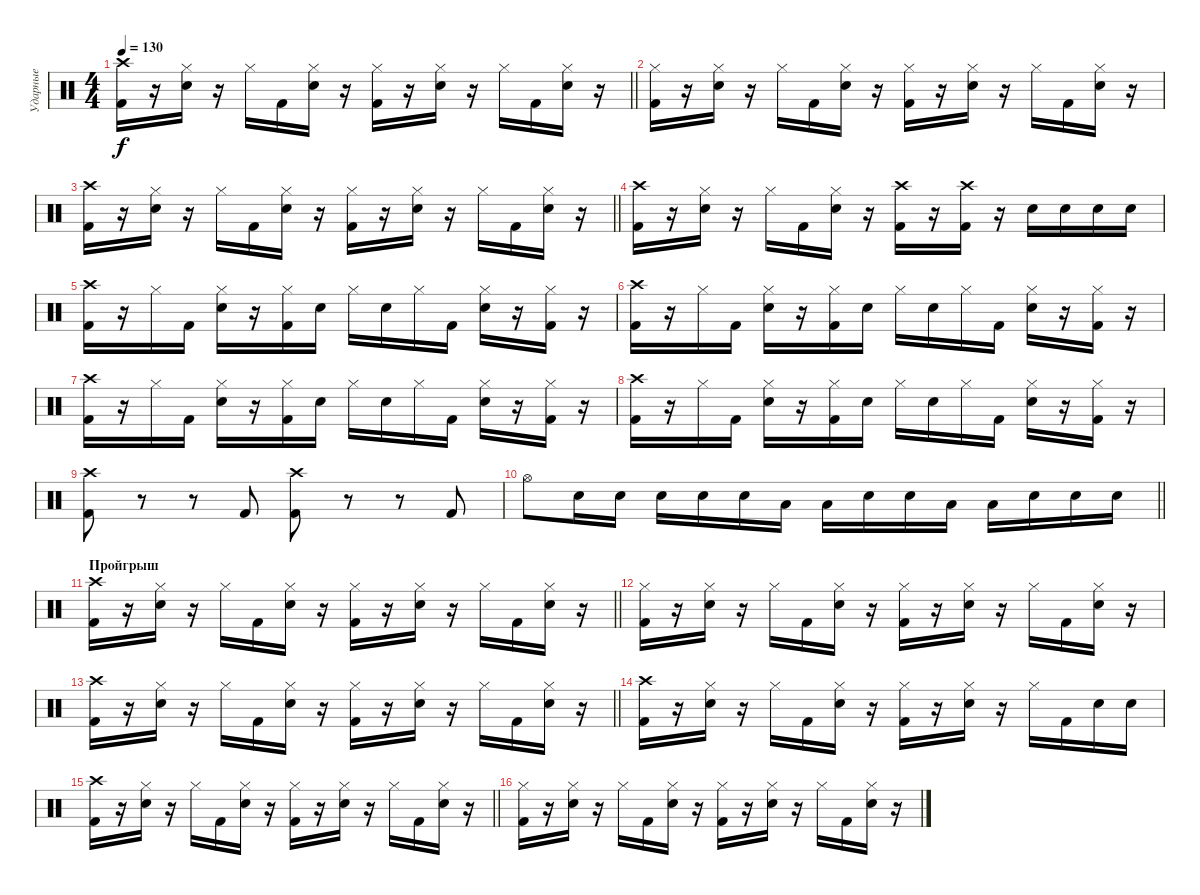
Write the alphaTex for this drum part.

\track ("Ударные" "Ударные") {instrument percussion}
\staff {score}
\articulation defaults
\ts (4 4)
\tempo 130
\clef neutral
\barLineRight lightlight
\ks c
("Kick (hit) 2" "Crash high (hit)").16{dy f} r.16 ("Electric Snare (hit)" "Hi-Hat (closed)").16 r.16 "Hi-Hat (closed)".16 "Kick (hit) 2".16 ("Electric Snare (hit)" "Hi-Hat (closed)").16 r.16 ("Kick (hit) 2" "Hi-Hat (closed)").16 r.16 ("Electric Snare (hit)" "Hi-Hat (closed)").16 r.16 "Hi-Hat (closed)".16 "Kick (hit) 2".16 ("Electric Snare (hit)" "Hi-Hat (closed)").16 r.16 |
("Kick (hit) 2" "Hi-Hat (closed)").16 r.16 ("Electric Snare (hit)" "Hi-Hat (closed)").16 r.16 "Hi-Hat (closed)".16 "Kick (hit) 2".16 ("Electric Snare (hit)" "Hi-Hat (closed)").16 r.16 ("Kick (hit) 2" "Hi-Hat (closed)").16 r.16 ("Electric Snare (hit)" "Hi-Hat (closed)").16 r.16 "Hi-Hat (closed)".16 "Kick (hit) 2".16 ("Electric Snare (hit)" "Hi-Hat (closed)").16 r.16 |
\barLineRight lightlight
("Kick (hit) 2" "Crash high (hit)").16 r.16 ("Electric Snare (hit)" "Hi-Hat (closed)").16 r.16 "Hi-Hat (closed)".16 "Kick (hit) 2".16 ("Electric Snare (hit)" "Hi-Hat (closed)").16 r.16 ("Kick (hit) 2" "Hi-Hat (closed)").16 r.16 ("Electric Snare (hit)" "Hi-Hat (closed)").16 r.16 "Hi-Hat (closed)".16 "Kick (hit) 2".16 ("Electric Snare (hit)" "Hi-Hat (closed)").16 r.16 |
("Kick (hit) 2" "Crash high (hit)").16 r.16 ("Electric Snare (hit)" "Hi-Hat (closed)").16 r.16 "Hi-Hat (closed)".16 "Kick (hit) 2".16 ("Electric Snare (hit)" "Hi-Hat (closed)").16 r.16 ("Kick (hit) 2" "Crash high (hit)").16 r.16 ("Kick (hit) 2" "Crash high (hit)").16 r.16 "Electric Snare (hit)".16 "Electric Snare (hit)".16 "Electric Snare (hit)".16 "Electric Snare (hit)".16 |
("Kick (hit) 2" "Crash high (hit)").16 r.16 "Hi-Hat (closed)".16 "Kick (hit) 2".16 ("Electric Snare (hit)" "Hi-Hat (closed)").16 r.16 ("Kick (hit) 2" "Hi-Hat (closed)").16 "Electric Snare (hit)".16 "Hi-Hat (closed)".16 "Electric Snare (hit)".16 "Hi-Hat (closed)".16 "Kick (hit) 2".16 ("Electric Snare (hit)" "Hi-Hat (closed)").16 r.16 ("Kick (hit) 2" "Hi-Hat (closed)").16 r.16 |
("Kick (hit) 2" "Crash high (hit)").16 r.16 "Hi-Hat (closed)".16 "Kick (hit) 2".16 ("Electric Snare (hit)" "Hi-Hat (closed)").16 r.16 ("Kick (hit) 2" "Hi-Hat (closed)").16 "Electric Snare (hit)".16 "Hi-Hat (closed)".16 "Electric Snare (hit)".16 "Hi-Hat (closed)".16 "Kick (hit) 2".16 ("Electric Snare (hit)" "Hi-Hat (closed)").16 r.16 ("Kick (hit) 2" "Hi-Hat (closed)").16 r.16 |
("Kick (hit) 2" "Crash high (hit)").16 r.16 "Hi-Hat (closed)".16 "Kick (hit) 2".16 ("Electric Snare (hit)" "Hi-Hat (closed)").16 r.16 ("Kick (hit) 2" "Hi-Hat (closed)").16 "Electric Snare (hit)".16 "Hi-Hat (closed)".16 "Electric Snare (hit)".16 "Hi-Hat (closed)".16 "Kick (hit) 2".16 ("Electric Snare (hit)" "Hi-Hat (closed)").16 r.16 ("Kick (hit) 2" "Hi-Hat (closed)").16 r.16 |
("Kick (hit) 2" "Crash high (hit)").16 r.16 "Hi-Hat (closed)".16 "Kick (hit) 2".16 ("Electric Snare (hit)" "Hi-Hat (closed)").16 r.16 ("Kick (hit) 2" "Hi-Hat (closed)").16 "Electric Snare (hit)".16 "Hi-Hat (closed)".16 "Electric Snare (hit)".16 "Hi-Hat (closed)".16 "Kick (hit) 2".16 ("Electric Snare (hit)" "Hi-Hat (closed)").16 r.16 ("Kick (hit) 2" "Hi-Hat (closed)").16 r.16 |
("Kick (hit) 2" "Crash high (hit)").8 r.8 r.8 "Kick (hit) 2".8 ("Kick (hit) 2" "Crash high (hit)").8 r.8 r.8 "Kick (hit) 2".8 |
\barLineRight lightlight "Hi-Hat (open)".8 "Electric Snare (hit)".16 "Electric Snare (hit)".16 "Electric Snare (hit)".16 "Electric Snare (hit)".16 "Electric Snare (hit)".16 "Low Tom (hit)".16 "Low Tom (hit)".16 "Electric Snare (hit)".16 "Electric Snare (hit)".16 "Low Tom (hit)".16 "Low Tom (hit)".16 "Electric Snare (hit)".16 "Electric Snare (hit)".16 "Electric Snare (hit)".16
|
\section ("" "Пройгрыш")
\barLineRight lightlight
("Kick (hit) 2" "Crash high (hit)").16 r.16 ("Electric Snare (hit)" "Hi-Hat (closed)").16 r.16 "Hi-Hat (closed)".16 "Kick (hit) 2".16 ("Electric Snare (hit)" "Hi-Hat (closed)").16 r.16 ("Kick (hit) 2" "Hi-Hat (closed)").16 r.16 ("Electric Snare (hit)" "Hi-Hat (closed)").16 r.16 "Hi-Hat (closed)".16 "Kick (hit) 2".16 ("Electric Snare (hit)" "Hi-Hat (closed)").16 r.16 |
("Kick (hit) 2" "Hi-Hat (closed)").16 r.16 ("Electric Snare (hit)" "Hi-Hat (closed)").16 r.16 "Hi-Hat (closed)".16 "Kick (hit) 2".16 ("Electric Snare (hit)" "Hi-Hat (closed)").16 r.16 ("Kick (hit) 2" "Hi-Hat (closed)").16 r.16 ("Electric Snare (hit)" "Hi-Hat (closed)").16 r.16 "Hi-Hat (closed)".16 "Kick (hit) 2".16 ("Electric Snare (hit)" "Hi-Hat (closed)").16 r.16 |
\barLineRight lightlight
("Kick (hit) 2" "Crash high (hit)").16 r.16 ("Electric Snare (hit)" "Hi-Hat (closed)").16 r.16 "Hi-Hat (closed)".16 "Kick (hit) 2".16 ("Electric Snare (hit)" "Hi-Hat (closed)").16 r.16 ("Kick (hit) 2" "Hi-Hat (closed)").16 r.16 ("Electric Snare (hit)" "Hi-Hat (closed)").16 r.16 "Hi-Hat (closed)".16 "Kick (hit) 2".16 ("Electric Snare (hit)" "Hi-Hat (closed)").16 r.16 |
("Kick (hit) 2" "Crash high (hit)").16 r.16 ("Electric Snare (hit)" "Hi-Hat (closed)").16 r.16 "Hi-Hat (closed)".16 "Kick (hit) 2".16 ("Electric Snare (hit)" "Hi-Hat (closed)").16 r.16 ("Kick (hit) 2" "Hi-Hat (closed)").16 r.16 ("Electric Snare (hit)" "Hi-Hat (closed)").16 r.16 "Hi-Hat (closed)".16 "Kick (hit) 2".16 "Electric Snare (hit)".16 "Electric Snare (hit)".16 |
\barLineRight lightlight
("Kick (hit) 2" "Crash high (hit)").16 r.16 ("Electric Snare (hit)" "Hi-Hat (closed)").16 r.16 "Hi-Hat (closed)".16 "Kick (hit) 2".16 ("Electric Snare (hit)" "Hi-Hat (closed)").16 r.16 ("Kick (hit) 2" "Hi-Hat (closed)").16 r.16 ("Electric Snare (hit)" "Hi-Hat (closed)").16 r.16 "Hi-Hat (closed)".16 "Kick (hit) 2".16 ("Electric Snare (hit)" "Hi-Hat (closed)").16 r.16 |
("Kick (hit) 2" "Hi-Hat (closed)").16 r.16 ("Electric Snare (hit)" "Hi-Hat (closed)").16 r.16 "Hi-Hat (closed)".16 "Kick (hit) 2".16 ("Electric Snare (hit)" "Hi-Hat (closed)").16 r.16 ("Kick (hit) 2" "Hi-Hat (closed)").16 r.16 ("Electric Snare (hit)" "Hi-Hat (closed)").16 r.16 "Hi-Hat (closed)".16 "Kick (hit) 2".16 ("Electric Snare (hit)" "Hi-Hat (closed)").16 r.16
